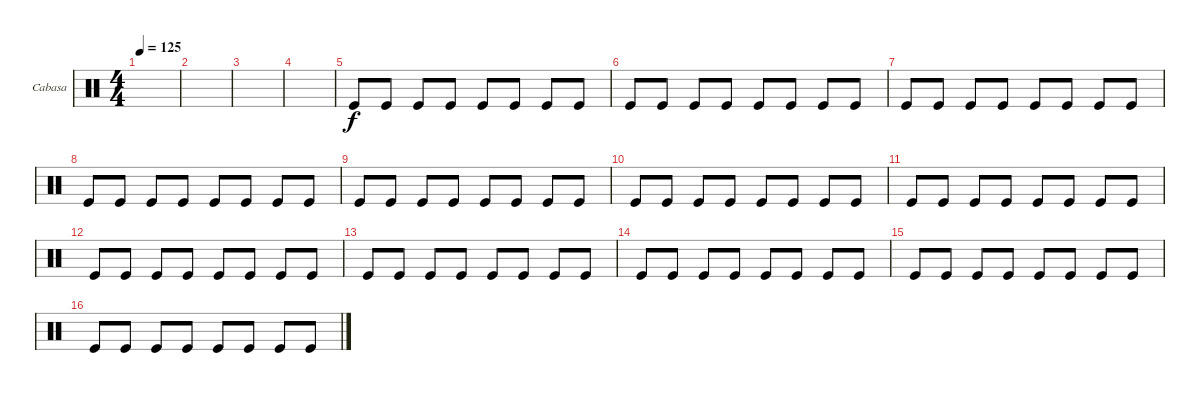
\defaultSystemsLayout 4
\bracketExtendMode groupsimilarinstruments
\firstSystemTrackNameOrientation horizontal
\otherSystemsTrackNameOrientation horizontal
\track ("Cabasa" "Cabasa") {instrument percussion}
\staff {score}
\articulation defaults
\ts (4 4)
\tempo 125
\clef neutral
\scale
0.472222
\ks c
|
|
|
\scale
0.263889 |
\scale
0.263889 "Kick (hit)".8 "Kick (hit)".8 "Kick (hit)".8 "Kick (hit)".8 "Kick (hit)".8 "Kick (hit)".8 "Kick (hit)".8 "Kick (hit)".8 |
\scale
0.333333 "Kick (hit)".8 "Kick (hit)".8 "Kick (hit)".8 "Kick (hit)".8 "Kick (hit)".8 "Kick (hit)".8 "Kick (hit)".8 "Kick (hit)".8 |
\scale
0.333333 "Kick (hit)".8 "Kick (hit)".8 "Kick (hit)".8 "Kick (hit)".8 "Kick (hit)".8 "Kick (hit)".8 "Kick (hit)".8 "Kick (hit)".8 |
\scale
0.333333 "Kick (hit)".8 "Kick (hit)".8 "Kick (hit)".8 "Kick (hit)".8 "Kick (hit)".8 "Kick (hit)".8 "Kick (hit)".8 "Kick (hit)".8 |
\scale
0.333333 "Kick (hit)".8 "Kick (hit)".8 "Kick (hit)".8 "Kick (hit)".8 "Kick (hit)".8 "Kick (hit)".8 "Kick (hit)".8 "Kick (hit)".8 |
\scale
0.333333 "Kick (hit)".8 "Kick (hit)".8 "Kick (hit)".8 "Kick (hit)".8 "Kick (hit)".8 "Kick (hit)".8 "Kick (hit)".8 "Kick (hit)".8 |
\scale
0.333333 "Kick (hit)".8 "Kick (hit)".8 "Kick (hit)".8 "Kick (hit)".8 "Kick (hit)".8 "Kick (hit)".8 "Kick (hit)".8 "Kick (hit)".8 |
\scale
0.333333 "Kick (hit)".8 "Kick (hit)".8 "Kick (hit)".8 "Kick (hit)".8 "Kick (hit)".8 "Kick (hit)".8 "Kick (hit)".8 "Kick (hit)".8 |
\scale
0.333333 "Kick (hit)".8 "Kick (hit)".8 "Kick (hit)".8 "Kick (hit)".8 "Kick (hit)".8 "Kick (hit)".8 "Kick (hit)".8 "Kick (hit)".8 |
\scale
0.333333 "Kick (hit)".8 "Kick (hit)".8 "Kick (hit)".8 "Kick (hit)".8 "Kick (hit)".8 "Kick (hit)".8 "Kick (hit)".8 "Kick (hit)".8 |
\scale
0.333333 "Kick (hit)".8 "Kick (hit)".8 "Kick (hit)".8 "Kick (hit)".8 "Kick (hit)".8 "Kick (hit)".8 "Kick (hit)".8 "Kick (hit)".8 |
\scale
0.333333 "Kick (hit)".8 "Kick (hit)".8 "Kick (hit)".8 "Kick (hit)".8 "Kick (hit)".8 "Kick (hit)".8 "Kick (hit)".8 "Kick (hit)".8
